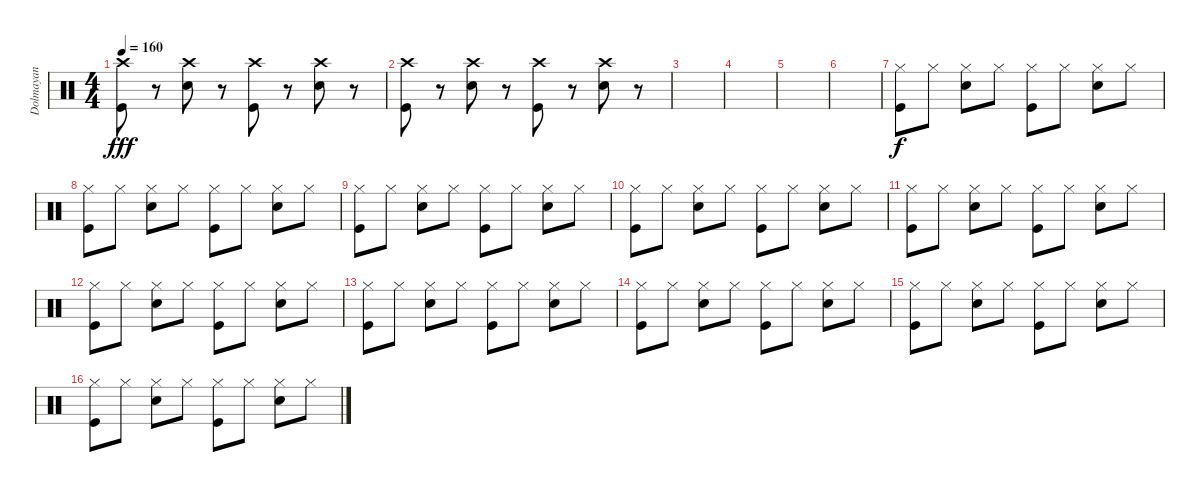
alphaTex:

\track ("Dolmayan" "Dolmayan") {instrument percussion}
\staff {score}
\articulation defaults
\ts (4 4)
\tempo 160
\clef neutral
\ks c
("Crash high (hit)" "Kick (hit)").8{dy fff} r.8 ("Crash high (hit)" "Electric Snare (hit)").8 r.8 ("Crash high (hit)" "Kick (hit)").8 r.8 ("Crash high (hit)" "Electric Snare (hit)").8 r.8 |
("Crash high (hit)" "Kick (hit)").8 r.8 ("Crash high (hit)" "Electric Snare (hit)").8 r.8 ("Crash high (hit)" "Kick (hit)").8 r.8 ("Crash high (hit)" "Electric Snare (hit)").8 r.8 |
|
|
|
|
("Hi-Hat (closed)" "Kick (hit)").8{dy f} "Hi-Hat (closed)".8 ("Hi-Hat (closed)" "Electric Snare (hit)").8 "Hi-Hat (closed)".8 ("Hi-Hat (closed)" "Kick (hit)").8 "Hi-Hat (closed)".8 ("Hi-Hat (closed)" "Electric Snare (hit)").8 "Hi-Hat (closed)".8 |
("Hi-Hat (closed)" "Kick (hit)").8 "Hi-Hat (closed)".8 ("Hi-Hat (closed)" "Electric Snare (hit)").8 "Hi-Hat (closed)".8 ("Hi-Hat (closed)" "Kick (hit)").8 "Hi-Hat (closed)".8 ("Hi-Hat (closed)" "Electric Snare (hit)").8 "Hi-Hat (closed)".8 |
("Hi-Hat (closed)" "Kick (hit)").8 "Hi-Hat (closed)".8 ("Hi-Hat (closed)" "Electric Snare (hit)").8 "Hi-Hat (closed)".8 ("Hi-Hat (closed)" "Kick (hit)").8 "Hi-Hat (closed)".8 ("Hi-Hat (closed)" "Electric Snare (hit)").8 "Hi-Hat (closed)".8 |
("Hi-Hat (closed)" "Kick (hit)").8 "Hi-Hat (closed)".8 ("Hi-Hat (closed)" "Electric Snare (hit)").8 "Hi-Hat (closed)".8 ("Hi-Hat (closed)" "Kick (hit)").8 "Hi-Hat (closed)".8 ("Hi-Hat (closed)" "Electric Snare (hit)").8 "Hi-Hat (closed)".8 |
("Hi-Hat (closed)" "Kick (hit)").8 "Hi-Hat (closed)".8 ("Hi-Hat (closed)" "Electric Snare (hit)").8 "Hi-Hat (closed)".8 ("Hi-Hat (closed)" "Kick (hit)").8 "Hi-Hat (closed)".8 ("Hi-Hat (closed)" "Electric Snare (hit)").8 "Hi-Hat (closed)".8 |
("Hi-Hat (closed)" "Kick (hit)").8 "Hi-Hat (closed)".8 ("Hi-Hat (closed)" "Electric Snare (hit)").8 "Hi-Hat (closed)".8 ("Hi-Hat (closed)" "Kick (hit)").8 "Hi-Hat (closed)".8 ("Hi-Hat (closed)" "Electric Snare (hit)").8 "Hi-Hat (closed)".8 |
("Hi-Hat (closed)" "Kick (hit)").8 "Hi-Hat (closed)".8 ("Hi-Hat (closed)" "Electric Snare (hit)").8 "Hi-Hat (closed)".8 ("Hi-Hat (closed)" "Kick (hit)").8 "Hi-Hat (closed)".8 ("Hi-Hat (closed)" "Electric Snare (hit)").8 "Hi-Hat (closed)".8 |
("Hi-Hat (closed)" "Kick (hit)").8 "Hi-Hat (closed)".8 ("Hi-Hat (closed)" "Electric Snare (hit)").8 "Hi-Hat (closed)".8 ("Hi-Hat (closed)" "Kick (hit)").8 "Hi-Hat (closed)".8 ("Hi-Hat (closed)" "Electric Snare (hit)").8 "Hi-Hat (closed)".8 |
("Hi-Hat (closed)" "Kick (hit)").8 "Hi-Hat (closed)".8 ("Hi-Hat (closed)" "Electric Snare (hit)").8 "Hi-Hat (closed)".8 ("Hi-Hat (closed)" "Kick (hit)").8 "Hi-Hat (closed)".8 ("Hi-Hat (closed)" "Electric Snare (hit)").8 "Hi-Hat (closed)".8 |
("Hi-Hat (closed)" "Kick (hit)").8 "Hi-Hat (closed)".8 ("Hi-Hat (closed)" "Electric Snare (hit)").8 "Hi-Hat (closed)".8 ("Hi-Hat (closed)" "Kick (hit)").8 "Hi-Hat (closed)".8 ("Hi-Hat (closed)" "Electric Snare (hit)").8 "Hi-Hat (closed)".8
